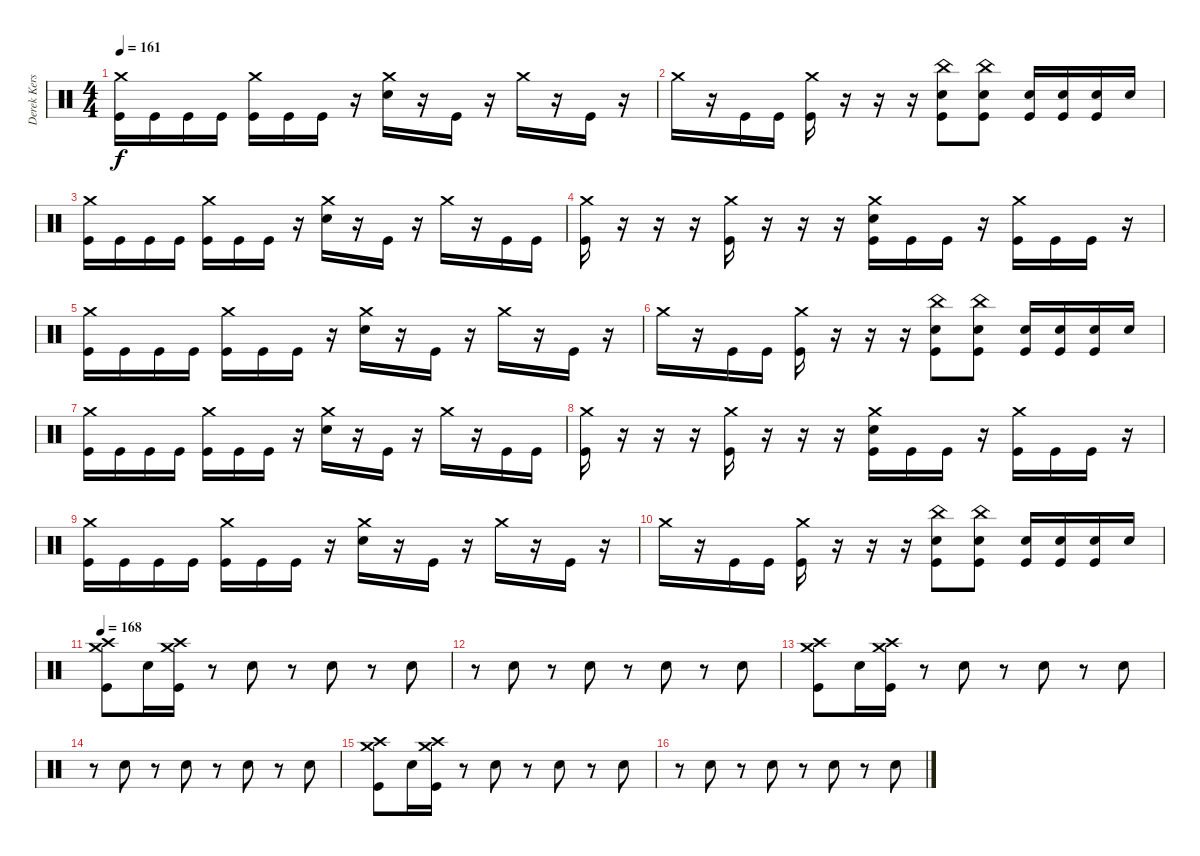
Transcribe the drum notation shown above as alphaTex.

\track ("Derek Kerswill" "Derek Kers") {instrument percussion}
\staff {score}
\articulation defaults
\ts (4 4)
\tempo 161
\clef neutral
\ks c
("Crash medium (hit)" "Kick (hit)").16{dy f} "Kick (hit)".16 "Kick (hit)".16 "Kick (hit)".16 ("Crash medium (hit)" "Kick (hit)").16 "Kick (hit)".16 "Kick (hit)".16 r.16 ("Crash medium (hit)" "Electric Snare (hit)").16 r.16 "Kick (hit)".16 r.16 "Crash medium (hit)".16 r.16 "Kick (hit)".16 r.16 |
"Crash medium (hit)".16 r.16 "Kick (hit)".16 "Kick (hit)".16 ("Crash medium (hit)" "Kick (hit)").16 r.16 r.16 r.16 ("China (hit)" "Electric Snare (hit)" "Kick (hit)").8 ("China (hit)" "Electric Snare (hit)" "Kick (hit)").8 ("Electric Snare (hit)" "Kick (hit)").16 ("Electric Snare (hit)" "Kick (hit)").16 ("Electric Snare (hit)" "Kick (hit)").16 "Electric Snare (hit)".16 |
("Crash medium (hit)" "Kick (hit)").16 "Kick (hit)".16 "Kick (hit)".16 "Kick (hit)".16 ("Crash medium (hit)" "Kick (hit)").16 "Kick (hit)".16 "Kick (hit)".16 r.16 ("Crash medium (hit)" "Electric Snare (hit)").16 r.16 "Kick (hit)".16 r.16 "Crash medium (hit)".16 r.16 "Kick (hit)".16 "Kick (hit)".16 |
("Crash medium (hit)" "Kick (hit)").16 r.16 r.16 r.16 ("Crash medium (hit)" "Kick (hit)").16 r.16 r.16 r.16 ("Crash medium (hit)" "Electric Snare (hit)" "Kick (hit)").16 "Kick (hit)".16 "Kick (hit)".16 r.16 ("Crash medium (hit)" "Kick (hit)").16 "Kick (hit)".16 "Kick (hit)".16 r.16 |
("Crash medium (hit)" "Kick (hit)").16 "Kick (hit)".16 "Kick (hit)".16 "Kick (hit)".16 ("Crash medium (hit)" "Kick (hit)").16 "Kick (hit)".16 "Kick (hit)".16 r.16 ("Crash medium (hit)" "Electric Snare (hit)").16 r.16 "Kick (hit)".16 r.16 "Crash medium (hit)".16 r.16 "Kick (hit)".16 r.16 |
"Crash medium (hit)".16 r.16 "Kick (hit)".16 "Kick (hit)".16 ("Crash medium (hit)" "Kick (hit)").16 r.16 r.16 r.16 ("China (hit)" "Electric Snare (hit)" "Kick (hit)").8 ("China (hit)" "Electric Snare (hit)" "Kick (hit)").8 ("Electric Snare (hit)" "Kick (hit)").16 ("Electric Snare (hit)" "Kick (hit)").16 ("Electric Snare (hit)" "Kick (hit)").16 "Electric Snare (hit)".16 |
("Crash medium (hit)" "Kick (hit)").16 "Kick (hit)".16 "Kick (hit)".16 "Kick (hit)".16 ("Crash medium (hit)" "Kick (hit)").16 "Kick (hit)".16 "Kick (hit)".16 r.16 ("Crash medium (hit)" "Electric Snare (hit)").16 r.16 "Kick (hit)".16 r.16 "Crash medium (hit)".16 r.16 "Kick (hit)".16 "Kick (hit)".16 |
("Crash medium (hit)" "Kick (hit)").16 r.16 r.16 r.16 ("Crash medium (hit)" "Kick (hit)").16 r.16 r.16 r.16 ("Crash medium (hit)" "Electric Snare (hit)" "Kick (hit)").16 "Kick (hit)".16 "Kick (hit)".16 r.16 ("Crash medium (hit)" "Kick (hit)").16 "Kick (hit)".16 "Kick (hit)".16 r.16 |
("Crash medium (hit)" "Kick (hit)").16 "Kick (hit)".16 "Kick (hit)".16 "Kick (hit)".16 ("Crash medium (hit)" "Kick (hit)").16 "Kick (hit)".16 "Kick (hit)".16 r.16 ("Crash medium (hit)" "Electric Snare (hit)").16 r.16 "Kick (hit)".16 r.16 "Crash medium (hit)".16 r.16 "Kick (hit)".16 r.16 |
"Crash medium (hit)".16 r.16 "Kick (hit)".16 "Kick (hit)".16 ("Crash medium (hit)" "Kick (hit)").16 r.16 r.16 r.16 ("China (hit)" "Electric Snare (hit)" "Kick (hit)").8 ("China (hit)" "Electric Snare (hit)" "Kick (hit)").8 ("Electric Snare (hit)" "Kick (hit)").16 ("Electric Snare (hit)" "Kick (hit)").16 ("Electric Snare (hit)" "Kick (hit)").16 "Electric Snare (hit)".16 |
\tempo 168
("Crash medium (hit)" "Crash high (hit)" "Kick (hit)").8 "Electric Snare (hit)".16 ("Crash high (hit)" "Crash medium (hit)" "Kick (hit)").16 r.8 "Electric Snare (hit)".8 r.8 "Electric Snare (hit)".8 r.8 "Electric Snare (hit)".8 |
r.8 "Electric Snare (hit)".8 r.8 "Electric Snare (hit)".8 r.8 "Electric Snare (hit)".8 r.8 "Electric Snare (hit)".8 |
("Crash medium (hit)" "Crash high (hit)" "Kick (hit)").8 "Electric Snare (hit)".16 ("Crash high (hit)" "Crash medium (hit)" "Kick (hit)").16 r.8 "Electric Snare (hit)".8 r.8 "Electric Snare (hit)".8 r.8 "Electric Snare (hit)".8 |
r.8 "Electric Snare (hit)".8 r.8 "Electric Snare (hit)".8 r.8 "Electric Snare (hit)".8 r.8 "Electric Snare (hit)".8 |
("Crash medium (hit)" "Crash high (hit)" "Kick (hit)").8 "Electric Snare (hit)".16 ("Crash high (hit)" "Crash medium (hit)" "Kick (hit)").16 r.8 "Electric Snare (hit)".8 r.8 "Electric Snare (hit)".8 r.8 "Electric Snare (hit)".8 |
r.8 "Electric Snare (hit)".8 r.8 "Electric Snare (hit)".8 r.8 "Electric Snare (hit)".8 r.8 "Electric Snare (hit)".8
